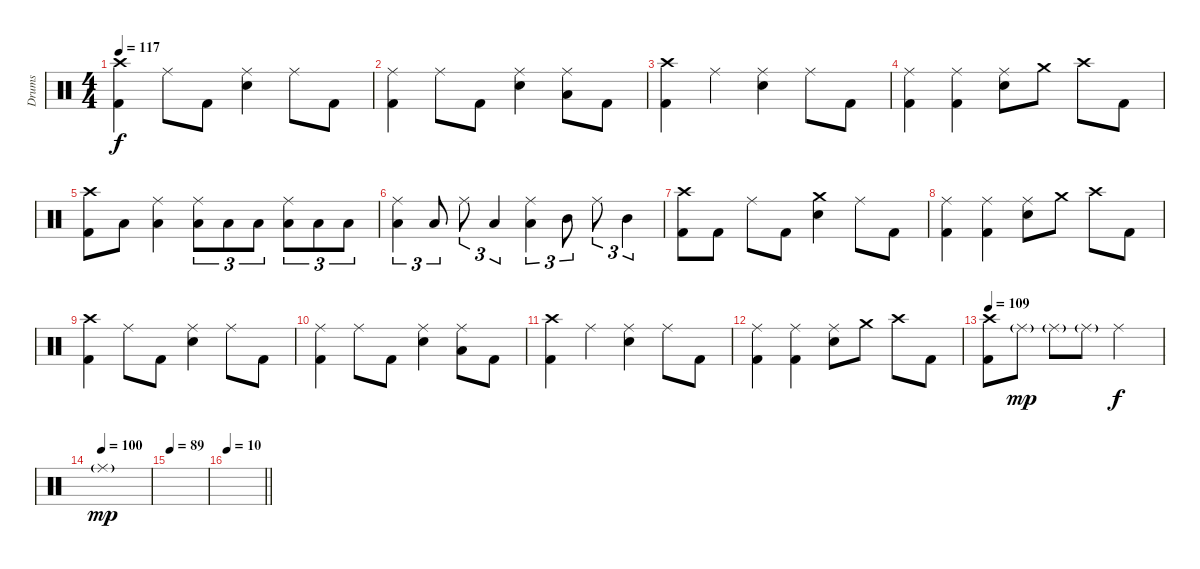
\track ("Drums" "Drums") {instrument percussion}
\staff {score}
\articulation defaults
\ts (4 4)
\tempo 117
\clef neutral
\ks c
("Crash high (hit)" "Kick (hit) 2").4{dy f} "Ride (middle)".8 "Kick (hit) 2".8 ("Ride (middle)" "Snare (hit) 2").4 "Ride (middle)".8 "Kick (hit) 2".8 |
("Ride (middle)" "Kick (hit) 2").4 "Ride (middle)".8 "Kick (hit) 2".8 ("Ride (middle)" "Snare (hit) 2").4 ("Ride (middle)" "Low Tom (hit)").8 "Kick (hit) 2".8 |
("Crash high (hit)" "Kick (hit) 2").4 "Ride (middle)".4 ("Ride (middle)" "Snare (hit) 2").4 "Ride (middle)".8 "Kick (hit) 2".8 |
("Ride (middle)" "Kick (hit) 2").4 ("Ride (middle)" "Kick (hit) 2").4 ("Ride (middle)" "Snare (hit) 2").8 "Crash medium (hit)".8 "Crash high (hit)".8 "Kick (hit) 2".8 |
("Crash high (hit)" "Kick (hit) 2").8 "Low Tom (hit)".8 ("Ride (middle)" "Low Floor Tom (hit)").4 ("Ride (middle)" "Low Tom (hit)").8{tu (3 2)} "Low Tom (hit)".8{tu (3 2)} "Low Tom (hit)".8{tu (3 2)} ("Ride (middle)" "Low Floor Tom (hit)").8{tu (3 2)} "Low Floor Tom (hit)".8{tu (3 2)} "Low Floor Tom (hit)".8{tu (3 2)} |
("Ride (middle)" "Low Floor Tom (hit)").4{tu (3 2)} "Low Floor Tom (hit)".8{tu (3 2)} "Ride (middle)".8{tu (3 2)} "Low Tom (hit)".4{tu (3 2)} ("Ride (middle)" "Low Tom (hit)").4{tu (3 2)} "Mid Tom (hit)".8{tu (3 2)} "Ride (middle)".8{tu (3 2)} "Mid Tom (hit)".4{tu (3 2)} |
("Crash high (hit)" "Kick (hit) 2").8 "Kick (hit) 2".8 "Ride (middle)".8 "Kick (hit) 2".8 ("Crash medium (hit)" "Snare (hit) 2").4 "Ride (middle)".8 "Kick (hit) 2".8 |
("Ride (middle)" "Kick (hit) 2").4 ("Ride (middle)" "Kick (hit) 2").4 ("Ride (middle)" "Snare (hit) 2").8 "Crash medium (hit)".8 "Crash high (hit)".8 "Kick (hit) 2".8 |
("Crash high (hit)" "Kick (hit) 2").4 "Ride (middle)".8 "Kick (hit) 2".8 ("Ride (middle)" "Snare (hit) 2").4 "Ride (middle)".8 "Kick (hit) 2".8 |
("Ride (middle)" "Kick (hit) 2").4 "Ride (middle)".8 "Kick (hit) 2".8 ("Ride (middle)" "Snare (hit) 2").4 ("Ride (middle)" "Low Tom (hit)").8 "Kick (hit) 2".8 |
("Crash high (hit)" "Kick (hit) 2").4 "Ride (middle)".4 ("Ride (middle)" "Snare (hit) 2").4 "Ride (middle)".8 "Kick (hit) 2".8 |
("Ride (middle)" "Kick (hit) 2").4 ("Ride (middle)" "Kick (hit) 2").4 ("Ride (middle)" "Snare (hit) 2").8 "Crash medium (hit)".8 "Crash high (hit)".8 "Kick (hit) 2".8 |
\tempo 109
("Crash high (hit)" "Kick (hit) 2").8 "Ride (middle)"{g}.8{dy mp} "Ride (middle)"{g}.8 "Ride (middle)"{g}.8 "Ride (middle)".2{dy f} |
\tempo (100)
"Ride (middle)"{g}.1{dy mp} |
\tempo 89
|
\tempo 117
\tempo 10
\barLineRight lightlight
